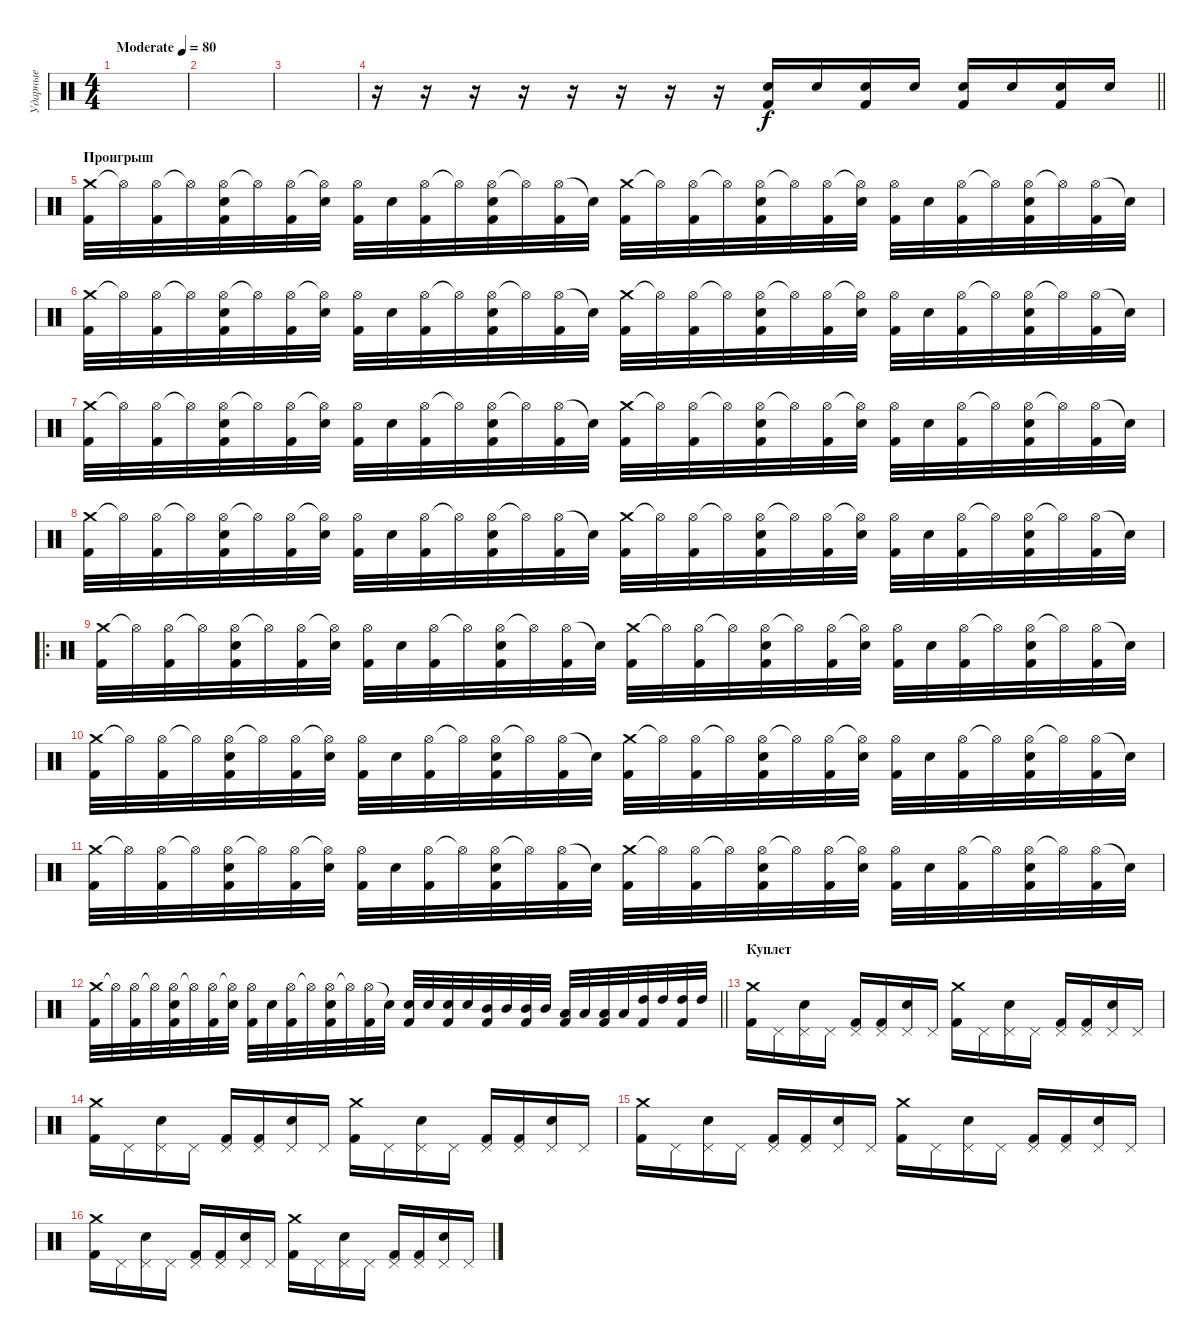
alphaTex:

\track ("Ударные" "Ударные") {instrument percussion}
\staff {score}
\articulation defaults
\ts (4 4)
\tempo (80 "Moderate")
\clef neutral
\ks c
|
|
|
\barLineRight lightlight
r.16 r.16 r.16 r.16 r.16 r.16 r.16 r.16 ("Snare (hit) 2" "Kick (hit) 2").16 "Snare (hit) 2".16 ("Snare (hit) 2" "Kick (hit) 2").16 "Snare (hit) 2".16 ("Snare (hit) 2" "Kick (hit) 2").16 "Snare (hit) 2".16 ("Snare (hit) 2" "Kick (hit) 2").16 "Snare (hit) 2".16 |
\section ("" "Проигрыш")
("Crash medium (hit)" "Kick (hit) 2").32 "Hi-Hat (open)"{t}.32 ("Hi-Hat (open)" "Kick (hit) 2").32 "Hi-Hat (open)"{t}.32 ("Hi-Hat (open)" "Snare (hit) 2" "Kick (hit) 2").32 "Hi-Hat (open)"{t}.32 ("Hi-Hat (open)" "Kick (hit) 2").32 ("Hi-Hat (open)"{t} "Snare (hit) 2").32 ("Hi-Hat (open)" "Kick (hit) 2").32 "Snare (hit) 2".32 ("Hi-Hat (open)" "Kick (hit) 2").32 "Hi-Hat (open)"{t}.32 ("Hi-Hat (open)" "Snare (hit) 2" "Kick (hit) 2").32 "Hi-Hat (open)"{t}.32 ("Hi-Hat (open)" "Kick (hit) 2").32 "Snare (hit)"{t}.32 ("Crash medium (hit)" "Kick (hit) 2").32 "Hi-Hat (open)"{t}.32 ("Hi-Hat (open)" "Kick (hit) 2").32 "Hi-Hat (open)"{t}.32 ("Hi-Hat (open)" "Snare (hit) 2" "Kick (hit) 2").32 "Hi-Hat (open)"{t}.32 ("Hi-Hat (open)" "Kick (hit) 2").32 ("Hi-Hat (open)"{t} "Snare (hit) 2").32 ("Hi-Hat (open)" "Kick (hit) 2").32 "Snare (hit) 2".32 ("Hi-Hat (open)" "Kick (hit) 2").32 "Hi-Hat (open)"{t}.32 ("Hi-Hat (open)" "Snare (hit) 2" "Kick (hit) 2").32 "Hi-Hat (open)"{t}.32 ("Hi-Hat (open)" "Kick (hit) 2").32 "Snare (hit)"{t}.32 |
("Crash medium (hit)" "Kick (hit) 2").32 "Hi-Hat (open)"{t}.32 ("Hi-Hat (open)" "Kick (hit) 2").32 "Hi-Hat (open)"{t}.32 ("Hi-Hat (open)" "Snare (hit) 2" "Kick (hit) 2").32 "Hi-Hat (open)"{t}.32 ("Hi-Hat (open)" "Kick (hit) 2").32 ("Hi-Hat (open)"{t} "Snare (hit) 2").32 ("Hi-Hat (open)" "Kick (hit) 2").32 "Snare (hit) 2".32 ("Hi-Hat (open)" "Kick (hit) 2").32 "Hi-Hat (open)"{t}.32 ("Hi-Hat (open)" "Snare (hit) 2" "Kick (hit) 2").32 "Hi-Hat (open)"{t}.32 ("Hi-Hat (open)" "Kick (hit) 2").32 "Snare (hit)"{t}.32 ("Crash medium (hit)" "Kick (hit) 2").32 "Hi-Hat (open)"{t}.32 ("Hi-Hat (open)" "Kick (hit) 2").32 "Hi-Hat (open)"{t}.32 ("Hi-Hat (open)" "Snare (hit) 2" "Kick (hit) 2").32 "Hi-Hat (open)"{t}.32 ("Hi-Hat (open)" "Kick (hit) 2").32 ("Hi-Hat (open)"{t} "Snare (hit) 2").32 ("Hi-Hat (open)" "Kick (hit) 2").32 "Snare (hit) 2".32 ("Hi-Hat (open)" "Kick (hit) 2").32 "Hi-Hat (open)"{t}.32 ("Hi-Hat (open)" "Snare (hit) 2" "Kick (hit) 2").32 "Hi-Hat (open)"{t}.32 ("Hi-Hat (open)" "Kick (hit) 2").32 "Snare (hit)"{t}.32 |
("Crash medium (hit)" "Kick (hit) 2").32 "Hi-Hat (open)"{t}.32 ("Hi-Hat (open)" "Kick (hit) 2").32 "Hi-Hat (open)"{t}.32 ("Hi-Hat (open)" "Snare (hit) 2" "Kick (hit) 2").32 "Hi-Hat (open)"{t}.32 ("Hi-Hat (open)" "Kick (hit) 2").32 ("Hi-Hat (open)"{t} "Snare (hit) 2").32 ("Hi-Hat (open)" "Kick (hit) 2").32 "Snare (hit) 2".32 ("Hi-Hat (open)" "Kick (hit) 2").32 "Hi-Hat (open)"{t}.32 ("Hi-Hat (open)" "Snare (hit) 2" "Kick (hit) 2").32 "Hi-Hat (open)"{t}.32 ("Hi-Hat (open)" "Kick (hit) 2").32 "Snare (hit)"{t}.32 ("Crash medium (hit)" "Kick (hit) 2").32 "Hi-Hat (open)"{t}.32 ("Hi-Hat (open)" "Kick (hit) 2").32 "Hi-Hat (open)"{t}.32 ("Hi-Hat (open)" "Snare (hit) 2" "Kick (hit) 2").32 "Hi-Hat (open)"{t}.32 ("Hi-Hat (open)" "Kick (hit) 2").32 ("Hi-Hat (open)"{t} "Snare (hit) 2").32 ("Hi-Hat (open)" "Kick (hit) 2").32 "Snare (hit) 2".32 ("Hi-Hat (open)" "Kick (hit) 2").32 "Hi-Hat (open)"{t}.32 ("Hi-Hat (open)" "Snare (hit) 2" "Kick (hit) 2").32 "Hi-Hat (open)"{t}.32 ("Hi-Hat (open)" "Kick (hit) 2").32 "Snare (hit)"{t}.32 |
("Crash medium (hit)" "Kick (hit) 2").32 "Hi-Hat (open)"{t}.32 ("Hi-Hat (open)" "Kick (hit) 2").32 "Hi-Hat (open)"{t}.32 ("Hi-Hat (open)" "Snare (hit) 2" "Kick (hit) 2").32 "Hi-Hat (open)"{t}.32 ("Hi-Hat (open)" "Kick (hit) 2").32 ("Hi-Hat (open)"{t} "Snare (hit) 2").32 ("Hi-Hat (open)" "Kick (hit) 2").32 "Snare (hit) 2".32 ("Hi-Hat (open)" "Kick (hit) 2").32 "Hi-Hat (open)"{t}.32 ("Hi-Hat (open)" "Snare (hit) 2" "Kick (hit) 2").32 "Hi-Hat (open)"{t}.32 ("Hi-Hat (open)" "Kick (hit) 2").32 "Snare (hit)"{t}.32 ("Crash medium (hit)" "Kick (hit) 2").32 "Hi-Hat (open)"{t}.32 ("Hi-Hat (open)" "Kick (hit) 2").32 "Hi-Hat (open)"{t}.32 ("Hi-Hat (open)" "Snare (hit) 2" "Kick (hit) 2").32 "Hi-Hat (open)"{t}.32 ("Hi-Hat (open)" "Kick (hit) 2").32 ("Hi-Hat (open)"{t} "Snare (hit) 2").32 ("Hi-Hat (open)" "Kick (hit) 2").32 "Snare (hit) 2".32 ("Hi-Hat (open)" "Kick (hit) 2").32 "Hi-Hat (open)"{t}.32 ("Hi-Hat (open)" "Snare (hit) 2" "Kick (hit) 2").32 "Hi-Hat (open)"{t}.32 ("Hi-Hat (open)" "Kick (hit) 2").32 "Snare (hit)"{t}.32 |
\ro
("Crash medium (hit)" "Kick (hit) 2").32 "Hi-Hat (open)"{t}.32 ("Hi-Hat (open)" "Kick (hit) 2").32 "Hi-Hat (open)"{t}.32 ("Hi-Hat (open)" "Snare (hit) 2" "Kick (hit) 2").32 "Hi-Hat (open)"{t}.32 ("Hi-Hat (open)" "Kick (hit) 2").32 ("Hi-Hat (open)"{t} "Snare (hit) 2").32 ("Hi-Hat (open)" "Kick (hit) 2").32 "Snare (hit) 2".32 ("Hi-Hat (open)" "Kick (hit) 2").32 "Hi-Hat (open)"{t}.32 ("Hi-Hat (open)" "Snare (hit) 2" "Kick (hit) 2").32 "Hi-Hat (open)"{t}.32 ("Hi-Hat (open)" "Kick (hit) 2").32 "Snare (hit)"{t}.32 ("Crash medium (hit)" "Kick (hit) 2").32 "Hi-Hat (open)"{t}.32 ("Hi-Hat (open)" "Kick (hit) 2").32 "Hi-Hat (open)"{t}.32 ("Hi-Hat (open)" "Snare (hit) 2" "Kick (hit) 2").32 "Hi-Hat (open)"{t}.32 ("Hi-Hat (open)" "Kick (hit) 2").32 ("Hi-Hat (open)"{t} "Snare (hit) 2").32 ("Hi-Hat (open)" "Kick (hit) 2").32 "Snare (hit) 2".32 ("Hi-Hat (open)" "Kick (hit) 2").32 "Hi-Hat (open)"{t}.32 ("Hi-Hat (open)" "Snare (hit) 2" "Kick (hit) 2").32 "Hi-Hat (open)"{t}.32 ("Hi-Hat (open)" "Kick (hit) 2").32 "Snare (hit)"{t}.32 |
("Crash medium (hit)" "Kick (hit) 2").32 "Hi-Hat (open)"{t}.32 ("Hi-Hat (open)" "Kick (hit) 2").32 "Hi-Hat (open)"{t}.32 ("Hi-Hat (open)" "Snare (hit) 2" "Kick (hit) 2").32 "Hi-Hat (open)"{t}.32 ("Hi-Hat (open)" "Kick (hit) 2").32 ("Hi-Hat (open)"{t} "Snare (hit) 2").32 ("Hi-Hat (open)" "Kick (hit) 2").32 "Snare (hit) 2".32 ("Hi-Hat (open)" "Kick (hit) 2").32 "Hi-Hat (open)"{t}.32 ("Hi-Hat (open)" "Snare (hit) 2" "Kick (hit) 2").32 "Hi-Hat (open)"{t}.32 ("Hi-Hat (open)" "Kick (hit) 2").32 "Snare (hit)"{t}.32 ("Crash medium (hit)" "Kick (hit) 2").32 "Hi-Hat (open)"{t}.32 ("Hi-Hat (open)" "Kick (hit) 2").32 "Hi-Hat (open)"{t}.32 ("Hi-Hat (open)" "Snare (hit) 2" "Kick (hit) 2").32 "Hi-Hat (open)"{t}.32 ("Hi-Hat (open)" "Kick (hit) 2").32 ("Hi-Hat (open)"{t} "Snare (hit) 2").32 ("Hi-Hat (open)" "Kick (hit) 2").32 "Snare (hit) 2".32 ("Hi-Hat (open)" "Kick (hit) 2").32 "Hi-Hat (open)"{t}.32 ("Hi-Hat (open)" "Snare (hit) 2" "Kick (hit) 2").32 "Hi-Hat (open)"{t}.32 ("Hi-Hat (open)" "Kick (hit) 2").32 "Snare (hit)"{t}.32 |
("Crash medium (hit)" "Kick (hit) 2").32 "Hi-Hat (open)"{t}.32 ("Hi-Hat (open)" "Kick (hit) 2").32 "Hi-Hat (open)"{t}.32 ("Hi-Hat (open)" "Snare (hit) 2" "Kick (hit) 2").32 "Hi-Hat (open)"{t}.32 ("Hi-Hat (open)" "Kick (hit) 2").32 ("Hi-Hat (open)"{t} "Snare (hit) 2").32 ("Hi-Hat (open)" "Kick (hit) 2").32 "Snare (hit) 2".32 ("Hi-Hat (open)" "Kick (hit) 2").32 "Hi-Hat (open)"{t}.32 ("Hi-Hat (open)" "Snare (hit) 2" "Kick (hit) 2").32 "Hi-Hat (open)"{t}.32 ("Hi-Hat (open)" "Kick (hit) 2").32 "Snare (hit)"{t}.32 ("Crash medium (hit)" "Kick (hit) 2").32 "Hi-Hat (open)"{t}.32 ("Hi-Hat (open)" "Kick (hit) 2").32 "Hi-Hat (open)"{t}.32 ("Hi-Hat (open)" "Snare (hit) 2" "Kick (hit) 2").32 "Hi-Hat (open)"{t}.32 ("Hi-Hat (open)" "Kick (hit) 2").32 ("Hi-Hat (open)"{t} "Snare (hit) 2").32 ("Hi-Hat (open)" "Kick (hit) 2").32 "Snare (hit) 2".32 ("Hi-Hat (open)" "Kick (hit) 2").32 "Hi-Hat (open)"{t}.32 ("Hi-Hat (open)" "Snare (hit) 2" "Kick (hit) 2").32 "Hi-Hat (open)"{t}.32 ("Hi-Hat (open)" "Kick (hit) 2").32 "Snare (hit)"{t}.32 |
\barLineRight lightlight
("Crash medium (hit)" "Kick (hit) 2").32 "Hi-Hat (open)"{t}.32 ("Hi-Hat (open)" "Kick (hit) 2").32 "Hi-Hat (open)"{t}.32 ("Hi-Hat (open)" "Snare (hit) 2" "Kick (hit) 2").32 "Hi-Hat (open)"{t}.32 ("Hi-Hat (open)" "Kick (hit) 2").32 ("Hi-Hat (open)"{t} "Snare (hit) 2").32 ("Hi-Hat (open)" "Kick (hit) 2").32 "Snare (hit) 2".32 ("Hi-Hat (open)" "Kick (hit) 2").32 "Hi-Hat (open)"{t}.32 ("Hi-Hat (open)" "Snare (hit) 2" "Kick (hit) 2").32 "Hi-Hat (open)"{t}.32 ("Hi-Hat (open)" "Kick (hit) 2").32 "Snare (hit)"{t}.32 ("Snare (hit) 2" "Kick (hit) 2").32 "Snare (hit) 2".32 ("Snare (hit) 2" "Kick (hit) 2").32 "Snare (hit) 2".32 ("Mid Tom (hit)" "Kick (hit) 2").32 "Mid Tom (hit)".32 ("Mid Tom (hit)" "Kick (hit) 2").32 "Mid Tom (hit)".32 ("Low Tom (hit)" "Kick (hit) 2").32 "Low Tom (hit)".32 ("Low Tom (hit)" "Kick (hit) 2").32 "Low Tom (hit)".32 ("High Tom (hit)" "Kick (hit) 2").32 "High Tom (hit)".32 ("High Tom (hit)" "Kick (hit) 2").32 "High Tom (hit)".32 |
\section ("" "Куплет")
("Crash medium (hit)" "Kick (hit) 2").16 "Pedal Hi-Hat (hit)".16 ("Pedal Hi-Hat (hit)" "Snare (hit) 2").16 "Pedal Hi-Hat (hit)".16 ("Pedal Hi-Hat (hit)" "Kick (hit) 2").16 ("Pedal Hi-Hat (hit)" "Kick (hit) 2").16 ("Pedal Hi-Hat (hit)" "Snare (hit) 2").16 "Pedal Hi-Hat (hit)".16 ("Crash medium (hit)" "Kick (hit) 2").16 "Pedal Hi-Hat (hit)".16 ("Pedal Hi-Hat (hit)" "Snare (hit) 2").16 "Pedal Hi-Hat (hit)".16 ("Pedal Hi-Hat (hit)" "Kick (hit) 2").16 ("Pedal Hi-Hat (hit)" "Kick (hit) 2").16 ("Pedal Hi-Hat (hit)" "Snare (hit) 2").16 "Pedal Hi-Hat (hit)".16 |
("Crash medium (hit)" "Kick (hit) 2").16 "Pedal Hi-Hat (hit)".16 ("Pedal Hi-Hat (hit)" "Snare (hit) 2").16 "Pedal Hi-Hat (hit)".16 ("Pedal Hi-Hat (hit)" "Kick (hit) 2").16 ("Pedal Hi-Hat (hit)" "Kick (hit) 2").16 ("Pedal Hi-Hat (hit)" "Snare (hit) 2").16 "Pedal Hi-Hat (hit)".16 ("Crash medium (hit)" "Kick (hit) 2").16 "Pedal Hi-Hat (hit)".16 ("Pedal Hi-Hat (hit)" "Snare (hit) 2").16 "Pedal Hi-Hat (hit)".16 ("Pedal Hi-Hat (hit)" "Kick (hit) 2").16 ("Pedal Hi-Hat (hit)" "Kick (hit) 2").16 ("Pedal Hi-Hat (hit)" "Snare (hit) 2").16 "Pedal Hi-Hat (hit)".16 |
("Crash medium (hit)" "Kick (hit) 2").16 "Pedal Hi-Hat (hit)".16 ("Pedal Hi-Hat (hit)" "Snare (hit) 2").16 "Pedal Hi-Hat (hit)".16 ("Pedal Hi-Hat (hit)" "Kick (hit) 2").16 ("Pedal Hi-Hat (hit)" "Kick (hit) 2").16 ("Pedal Hi-Hat (hit)" "Snare (hit) 2").16 "Pedal Hi-Hat (hit)".16 ("Crash medium (hit)" "Kick (hit) 2").16 "Pedal Hi-Hat (hit)".16 ("Pedal Hi-Hat (hit)" "Snare (hit) 2").16 "Pedal Hi-Hat (hit)".16 ("Pedal Hi-Hat (hit)" "Kick (hit) 2").16 ("Pedal Hi-Hat (hit)" "Kick (hit) 2").16 ("Pedal Hi-Hat (hit)" "Snare (hit) 2").16 "Pedal Hi-Hat (hit)".16 |
("Crash medium (hit)" "Kick (hit) 2").16 "Pedal Hi-Hat (hit)".16 ("Pedal Hi-Hat (hit)" "Snare (hit) 2").16 "Pedal Hi-Hat (hit)".16 ("Pedal Hi-Hat (hit)" "Kick (hit) 2").16 ("Pedal Hi-Hat (hit)" "Kick (hit) 2").16 ("Pedal Hi-Hat (hit)" "Snare (hit) 2").16 "Pedal Hi-Hat (hit)".16 ("Crash medium (hit)" "Kick (hit) 2").16 "Pedal Hi-Hat (hit)".16 ("Pedal Hi-Hat (hit)" "Snare (hit) 2").16 "Pedal Hi-Hat (hit)".16 ("Pedal Hi-Hat (hit)" "Kick (hit) 2").16 ("Pedal Hi-Hat (hit)" "Kick (hit) 2").16 ("Pedal Hi-Hat (hit)" "Snare (hit) 2").16 "Pedal Hi-Hat (hit)".16
